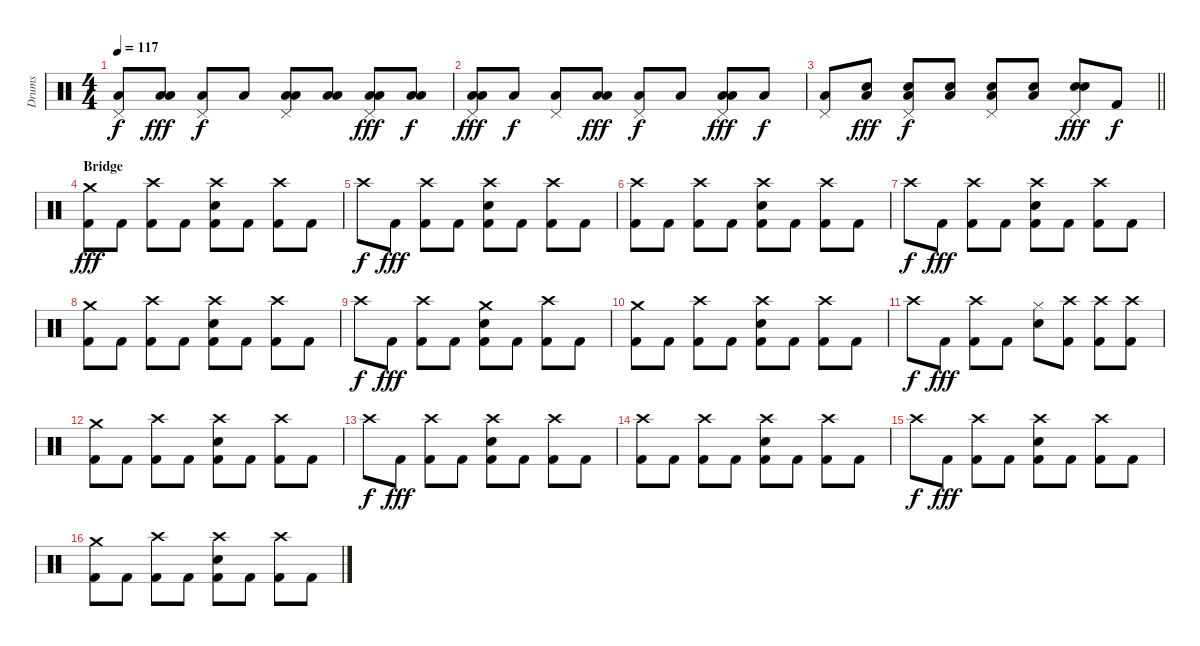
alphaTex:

\track ("Drums" "Drums") {instrument percussion}
\staff {score}
\articulation defaults
\ts (4 4)
\tempo 117
\clef neutral
\ks c
("Pedal Hi-Hat (hit)" "Low Floor Tom (hit)").8{dy f} ("Low Tom (hit)" "Low Floor Tom (hit)").8{dy fff} ("Pedal Hi-Hat (hit)" "Low Floor Tom (hit)").8{dy f} "Low Floor Tom (hit)".8 ("Pedal Hi-Hat (hit)" "Low Tom (hit)" "Low Floor Tom (hit)").8 ("Low Tom (hit)" "Low Floor Tom (hit)").8 ("Pedal Hi-Hat (hit)" "Low Tom (hit)" "Low Floor Tom (hit)").8{dy fff} ("Low Tom (hit)" "Low Floor Tom (hit)").8{dy f} |
("Pedal Hi-Hat (hit)" "Low Tom (hit)" "Low Floor Tom (hit)").8{dy fff} "Low Floor Tom (hit)".8{dy f} ("Pedal Hi-Hat (hit)" "Low Floor Tom (hit)").8 ("Low Tom (hit)" "Low Floor Tom (hit)").8{dy fff} ("Pedal Hi-Hat (hit)" "Low Floor Tom (hit)").8{dy f} "Low Floor Tom (hit)".8 ("Pedal Hi-Hat (hit)" "Low Tom (hit)" "Low Floor Tom (hit)").8{dy fff} "Low Floor Tom (hit)".8{dy f} |
\barLineRight lightlight
("Pedal Hi-Hat (hit)" "Low Floor Tom (hit)").8 ("Electric Snare (hit)" "Low Floor Tom (hit)").8{dy fff} ("Pedal Hi-Hat (hit)" "Electric Snare (hit)" "Low Floor Tom (hit)").8{dy f} ("Electric Snare (hit)" "Low Floor Tom (hit)").8 ("Pedal Hi-Hat (hit)" "Electric Snare (hit)" "Low Floor Tom (hit)").8 ("Electric Snare (hit)" "Low Floor Tom (hit)").8 ("Pedal Hi-Hat (hit)" "Electric Snare (hit)" "Electric Snare (hit)").8{dy fff} "Kick (hit) 2".8{dy f} |
\section ("" "Bridge")
("Crash medium (hit)" "Kick (hit) 2").8{dy fff} "Kick (hit) 2".8 ("Crash high (hit)" "Kick (hit) 2").8 "Kick (hit) 2".8 ("Crash high (hit)" "Electric Snare (hit)" "Kick (hit) 2").8 "Kick (hit) 2".8 ("Crash high (hit)" "Kick (hit) 2").8 "Kick (hit) 2".8 |
"Crash high (hit)".8{dy f} "Kick (hit) 2".8{dy fff} ("Crash high (hit)" "Kick (hit) 2").8 "Kick (hit) 2".8 ("Crash high (hit)" "Electric Snare (hit)" "Kick (hit) 2").8 "Kick (hit) 2".8 ("Crash high (hit)" "Kick (hit) 2").8 "Kick (hit) 2".8 |
("Crash high (hit)" "Kick (hit) 2").8 "Kick (hit) 2".8 ("Crash high (hit)" "Kick (hit) 2").8 "Kick (hit) 2".8 ("Crash high (hit)" "Electric Snare (hit)" "Kick (hit) 2").8 "Kick (hit) 2".8 ("Crash high (hit)" "Kick (hit) 2").8 "Kick (hit) 2".8 |
"Crash high (hit)".8{dy f} "Kick (hit) 2".8{dy fff} ("Crash high (hit)" "Kick (hit) 2").8 "Kick (hit) 2".8 ("Crash high (hit)" "Electric Snare (hit)" "Kick (hit) 2").8 "Kick (hit) 2".8 ("Crash high (hit)" "Kick (hit) 2").8 "Kick (hit) 2".8 |
("Crash medium (hit)" "Kick (hit) 2").8 "Kick (hit) 2".8 ("Crash high (hit)" "Kick (hit) 2").8 "Kick (hit) 2".8 ("Crash high (hit)" "Electric Snare (hit)" "Kick (hit) 2").8 "Kick (hit) 2".8 ("Crash high (hit)" "Kick (hit) 2").8 "Kick (hit) 2".8 |
"Crash high (hit)".8{dy f} "Kick (hit) 2".8{dy fff} ("Crash high (hit)" "Kick (hit) 2").8 "Kick (hit) 2".8 ("Crash medium (hit)" "Electric Snare (hit)" "Kick (hit) 2").8 "Kick (hit) 2".8 ("Crash high (hit)" "Kick (hit) 2").8 "Kick (hit) 2".8 |
("Crash medium (hit)" "Kick (hit) 2").8 "Kick (hit) 2".8 ("Crash high (hit)" "Kick (hit) 2").8 "Kick (hit) 2".8 ("Crash high (hit)" "Electric Snare (hit)" "Kick (hit) 2").8 "Kick (hit) 2".8 ("Crash high (hit)" "Kick (hit) 2").8 "Kick (hit) 2".8 |
"Crash high (hit)".8{dy f} "Kick (hit) 2".8{dy fff} ("Crash high (hit)" "Kick (hit) 2").8 "Kick (hit) 2".8 ("Hi-Hat (closed)" "Electric Snare (hit)").8 ("Crash high (hit)" "Kick (hit) 2").8 ("Crash high (hit)" "Kick (hit) 2").8 ("Crash high (hit)" "Kick (hit) 2").8 |
("Crash medium (hit)" "Kick (hit) 2").8 "Kick (hit) 2".8 ("Crash high (hit)" "Kick (hit) 2").8 "Kick (hit) 2".8 ("Crash high (hit)" "Electric Snare (hit)" "Kick (hit) 2").8 "Kick (hit) 2".8 ("Crash high (hit)" "Kick (hit) 2").8 "Kick (hit) 2".8 |
"Crash high (hit)".8{dy f} "Kick (hit) 2".8{dy fff} ("Crash high (hit)" "Kick (hit) 2").8 "Kick (hit) 2".8 ("Crash high (hit)" "Electric Snare (hit)" "Kick (hit) 2").8 "Kick (hit) 2".8 ("Crash high (hit)" "Kick (hit) 2").8 "Kick (hit) 2".8 |
("Crash high (hit)" "Kick (hit) 2").8 "Kick (hit) 2".8 ("Crash high (hit)" "Kick (hit) 2").8 "Kick (hit) 2".8 ("Crash high (hit)" "Electric Snare (hit)" "Kick (hit) 2").8 "Kick (hit) 2".8 ("Crash high (hit)" "Kick (hit) 2").8 "Kick (hit) 2".8 |
"Crash high (hit)".8{dy f} "Kick (hit) 2".8{dy fff} ("Crash high (hit)" "Kick (hit) 2").8 "Kick (hit) 2".8 ("Crash high (hit)" "Electric Snare (hit)" "Kick (hit) 2").8 "Kick (hit) 2".8 ("Crash high (hit)" "Kick (hit) 2").8 "Kick (hit) 2".8 |
("Crash medium (hit)" "Kick (hit) 2").8 "Kick (hit) 2".8 ("Crash high (hit)" "Kick (hit) 2").8 "Kick (hit) 2".8 ("Crash high (hit)" "Electric Snare (hit)" "Kick (hit) 2").8 "Kick (hit) 2".8 ("Crash high (hit)" "Kick (hit) 2").8 "Kick (hit) 2".8
